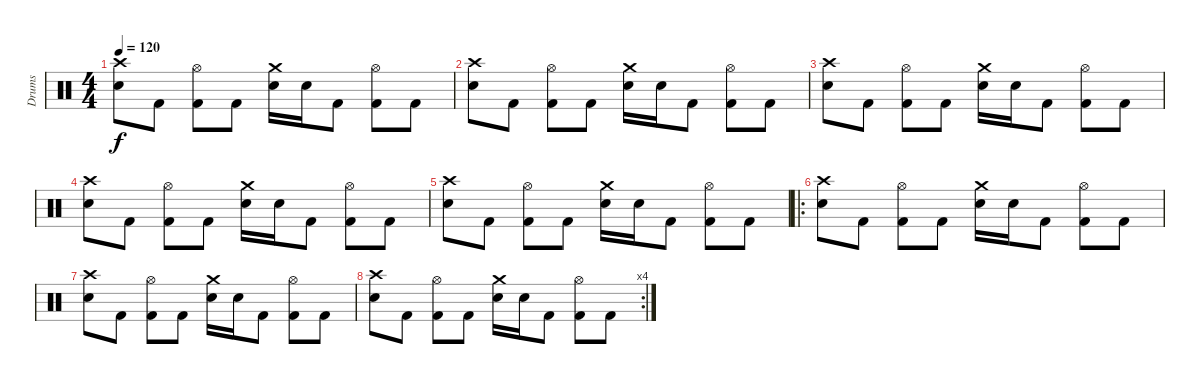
\track ("Drums" "Drums") {instrument percussion}
\staff {score}
\articulation defaults
\ts (4 4)
\tempo 120
\clef neutral
\ks c
("Electric Snare (hit)" "Crash high (hit)").8{dy f} "Kick (hit) 2".8 ("Hi-Hat (open)" "Kick (hit) 2").8 "Kick (hit) 2".8 ("Crash medium (hit)" "Electric Snare (hit)").16 "Electric Snare (hit)".16 "Kick (hit) 2".8 ("Hi-Hat (open)" "Kick (hit) 2").8 "Kick (hit) 2".8 |
("Electric Snare (hit)" "Crash high (hit)").8 "Kick (hit) 2".8 ("Hi-Hat (open)" "Kick (hit) 2").8 "Kick (hit) 2".8 ("Crash medium (hit)" "Electric Snare (hit)").16 "Electric Snare (hit)".16 "Kick (hit) 2".8 ("Hi-Hat (open)" "Kick (hit) 2").8 "Kick (hit) 2".8 |
("Electric Snare (hit)" "Crash high (hit)").8 "Kick (hit) 2".8 ("Hi-Hat (open)" "Kick (hit) 2").8 "Kick (hit) 2".8 ("Crash medium (hit)" "Electric Snare (hit)").16 "Electric Snare (hit)".16 "Kick (hit) 2".8 ("Hi-Hat (open)" "Kick (hit) 2").8 "Kick (hit) 2".8 |
("Crash high (hit)" "Electric Snare (hit)").8 "Kick (hit) 2".8 ("Hi-Hat (open)" "Kick (hit) 2").8 "Kick (hit) 2".8 ("Crash medium (hit)" "Electric Snare (hit)").16 "Electric Snare (hit)".16 "Kick (hit) 2".8 ("Hi-Hat (open)" "Kick (hit) 2").8 "Kick (hit) 2".8 |
("Crash high (hit)" "Electric Snare (hit)").8 "Kick (hit) 2".8 ("Hi-Hat (open)" "Kick (hit) 2").8 "Kick (hit) 2".8 ("Crash medium (hit)" "Electric Snare (hit)").16 "Electric Snare (hit)".16 "Kick (hit) 2".8 ("Hi-Hat (open)" "Kick (hit) 2").8 "Kick (hit) 2".8 |
\ro
("Electric Snare (hit)" "Crash high (hit)").8 "Kick (hit) 2".8 ("Hi-Hat (open)" "Kick (hit) 2").8 "Kick (hit) 2".8 ("Crash medium (hit)" "Electric Snare (hit)").16 "Electric Snare (hit)".16 "Kick (hit) 2".8 ("Hi-Hat (open)" "Kick (hit) 2").8 "Kick (hit) 2".8 |
("Electric Snare (hit)" "Crash high (hit)").8 "Kick (hit) 2".8 ("Hi-Hat (open)" "Kick (hit) 2").8 "Kick (hit) 2".8 ("Crash medium (hit)" "Electric Snare (hit)").16 "Electric Snare (hit)".16 "Kick (hit) 2".8 ("Hi-Hat (open)" "Kick (hit) 2").8 "Kick (hit) 2".8 |
\rc 4
("Crash high (hit)" "Electric Snare (hit)").8 "Kick (hit) 2".8 ("Hi-Hat (open)" "Kick (hit) 2").8 "Kick (hit) 2".8 ("Crash medium (hit)" "Electric Snare (hit)").16 "Electric Snare (hit)".16 "Kick (hit) 2".8 ("Hi-Hat (open)" "Kick (hit) 2").8 "Kick (hit) 2".8
